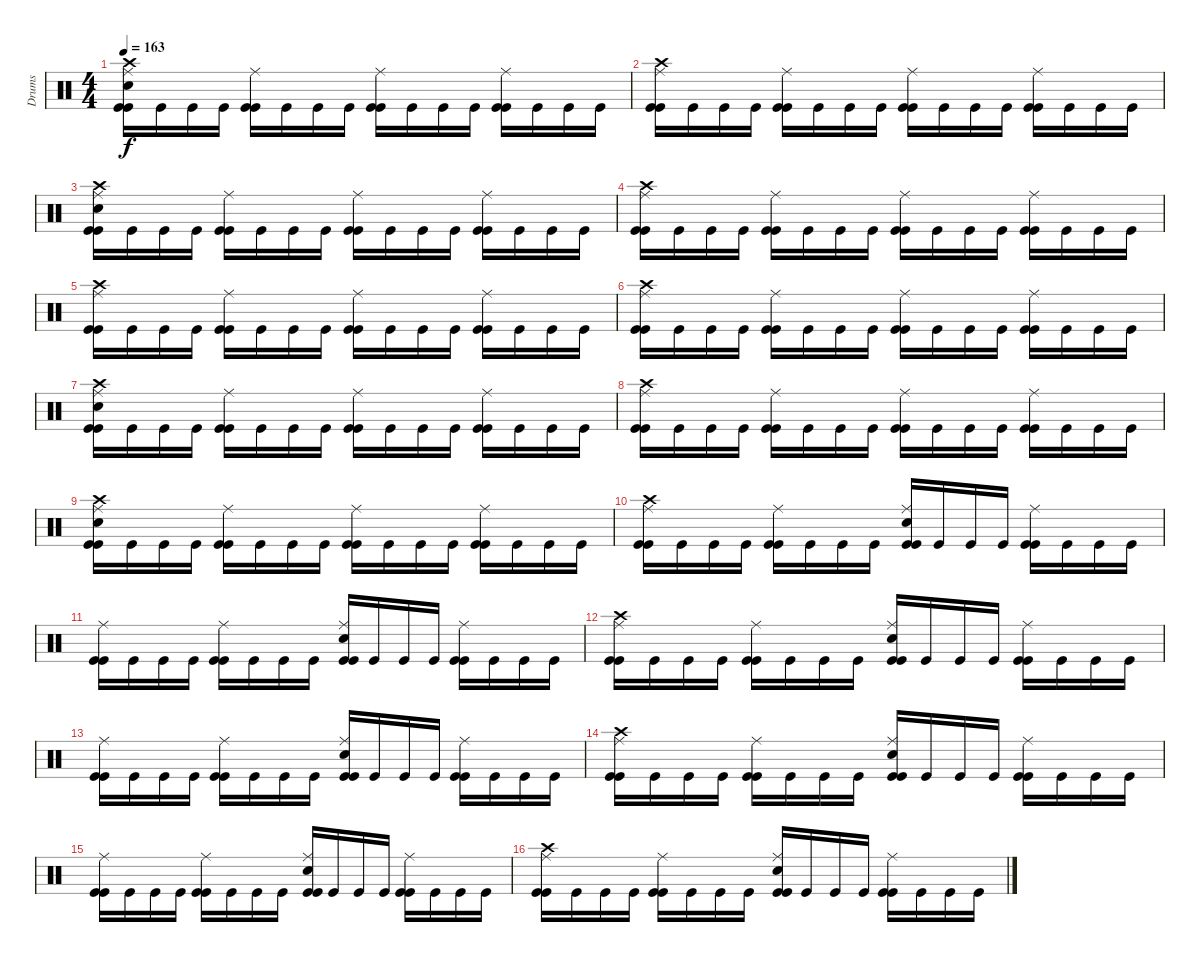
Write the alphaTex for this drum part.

\track ("Drums" "Drums") {instrument percussion}
\staff {score}
\articulation defaults
\ts (4 4)
\tempo 163
\clef neutral
\ks c
("Crash high (hit)" "Electric Snare (hit)" "Ride (middle)" "Kick (hit)" "Kick (hit)").16{dy f} "Kick (hit)".16 "Kick (hit)".16 "Kick (hit)".16 ("Ride (middle)" "Kick (hit)" "Kick (hit)").16 "Kick (hit)".16 "Kick (hit)".16 "Kick (hit)".16 ("Ride (middle)" "Kick (hit)" "Kick (hit)").16 "Kick (hit)".16 "Kick (hit)".16 "Kick (hit)".16 ("Ride (middle)" "Kick (hit)" "Kick (hit)").16 "Kick (hit)".16 "Kick (hit)".16 "Kick (hit)".16 |
("Crash high (hit)" "Ride (middle)" "Kick (hit)" "Kick (hit)").16 "Kick (hit)".16 "Kick (hit)".16 "Kick (hit)".16 ("Ride (middle)" "Kick (hit)" "Kick (hit)").16 "Kick (hit)".16 "Kick (hit)".16 "Kick (hit)".16 ("Ride (middle)" "Kick (hit)" "Kick (hit)").16 "Kick (hit)".16 "Kick (hit)".16 "Kick (hit)".16 ("Ride (middle)" "Kick (hit)" "Kick (hit)").16 "Kick (hit)".16 "Kick (hit)".16 "Kick (hit)".16 |
("Crash high (hit)" "Electric Snare (hit)" "Ride (middle)" "Kick (hit)" "Kick (hit)").16 "Kick (hit)".16 "Kick (hit)".16 "Kick (hit)".16 ("Ride (middle)" "Kick (hit)" "Kick (hit)").16 "Kick (hit)".16 "Kick (hit)".16 "Kick (hit)".16 ("Ride (middle)" "Kick (hit)" "Kick (hit)").16 "Kick (hit)".16 "Kick (hit)".16 "Kick (hit)".16 ("Ride (middle)" "Kick (hit)" "Kick (hit)").16 "Kick (hit)".16 "Kick (hit)".16 "Kick (hit)".16 |
("Crash high (hit)" "Ride (middle)" "Kick (hit)" "Kick (hit)").16 "Kick (hit)".16 "Kick (hit)".16 "Kick (hit)".16 ("Ride (middle)" "Kick (hit)" "Kick (hit)").16 "Kick (hit)".16 "Kick (hit)".16 "Kick (hit)".16 ("Ride (middle)" "Kick (hit)" "Kick (hit)").16 "Kick (hit)".16 "Kick (hit)".16 "Kick (hit)".16 ("Ride (middle)" "Kick (hit)" "Kick (hit)").16 "Kick (hit)".16 "Kick (hit)".16 "Kick (hit)".16 |
("Crash high (hit)" "Ride (middle)" "Kick (hit)" "Kick (hit)").16 "Kick (hit)".16 "Kick (hit)".16 "Kick (hit)".16 ("Ride (middle)" "Kick (hit)" "Kick (hit)").16 "Kick (hit)".16 "Kick (hit)".16 "Kick (hit)".16 ("Ride (middle)" "Kick (hit)" "Kick (hit)").16 "Kick (hit)".16 "Kick (hit)".16 "Kick (hit)".16 ("Ride (middle)" "Kick (hit)" "Kick (hit)").16 "Kick (hit)".16 "Kick (hit)".16 "Kick (hit)".16 |
("Crash high (hit)" "Ride (middle)" "Kick (hit)" "Kick (hit)").16 "Kick (hit)".16 "Kick (hit)".16 "Kick (hit)".16 ("Ride (middle)" "Kick (hit)" "Kick (hit)").16 "Kick (hit)".16 "Kick (hit)".16 "Kick (hit)".16 ("Ride (middle)" "Kick (hit)" "Kick (hit)").16 "Kick (hit)".16 "Kick (hit)".16 "Kick (hit)".16 ("Ride (middle)" "Kick (hit)" "Kick (hit)").16 "Kick (hit)".16 "Kick (hit)".16 "Kick (hit)".16 |
("Crash high (hit)" "Electric Snare (hit)" "Ride (middle)" "Kick (hit)" "Kick (hit)").16 "Kick (hit)".16 "Kick (hit)".16 "Kick (hit)".16 ("Ride (middle)" "Kick (hit)" "Kick (hit)").16 "Kick (hit)".16 "Kick (hit)".16 "Kick (hit)".16 ("Ride (middle)" "Kick (hit)" "Kick (hit)").16 "Kick (hit)".16 "Kick (hit)".16 "Kick (hit)".16 ("Ride (middle)" "Kick (hit)" "Kick (hit)").16 "Kick (hit)".16 "Kick (hit)".16 "Kick (hit)".16 |
("Crash high (hit)" "Ride (middle)" "Kick (hit)" "Kick (hit)").16 "Kick (hit)".16 "Kick (hit)".16 "Kick (hit)".16 ("Ride (middle)" "Kick (hit)" "Kick (hit)").16 "Kick (hit)".16 "Kick (hit)".16 "Kick (hit)".16 ("Ride (middle)" "Kick (hit)" "Kick (hit)").16 "Kick (hit)".16 "Kick (hit)".16 "Kick (hit)".16 ("Ride (middle)" "Kick (hit)" "Kick (hit)").16 "Kick (hit)".16 "Kick (hit)".16 "Kick (hit)".16 |
("Crash high (hit)" "Electric Snare (hit)" "Ride (middle)" "Kick (hit)" "Kick (hit)").16 "Kick (hit)".16 "Kick (hit)".16 "Kick (hit)".16 ("Ride (middle)" "Kick (hit)" "Kick (hit)").16 "Kick (hit)".16 "Kick (hit)".16 "Kick (hit)".16 ("Ride (middle)" "Kick (hit)" "Kick (hit)").16 "Kick (hit)".16 "Kick (hit)".16 "Kick (hit)".16 ("Ride (middle)" "Kick (hit)" "Kick (hit)").16 "Kick (hit)".16 "Kick (hit)".16 "Kick (hit)".16 |
("Crash high (hit)" "Ride (middle)" "Kick (hit)" "Kick (hit)").16 "Kick (hit)".16 "Kick (hit)".16 "Kick (hit)".16 ("Ride (middle)" "Kick (hit)" "Kick (hit)").16 "Kick (hit)".16 "Kick (hit)".16 "Kick (hit)".16 ("Electric Snare (hit)" "Ride (middle)" "Kick (hit)" "Kick (hit)").16 "Kick (hit)".16 "Kick (hit)".16 "Kick (hit)".16 ("Ride (middle)" "Kick (hit)" "Kick (hit)").16 "Kick (hit)".16 "Kick (hit)".16 "Kick (hit)".16 |
("Ride (middle)" "Kick (hit)" "Kick (hit)").16 "Kick (hit)".16 "Kick (hit)".16 "Kick (hit)".16 ("Ride (middle)" "Kick (hit)" "Kick (hit)").16 "Kick (hit)".16 "Kick (hit)".16 "Kick (hit)".16 ("Electric Snare (hit)" "Ride (middle)" "Kick (hit)" "Kick (hit)").16 "Kick (hit)".16 "Kick (hit)".16 "Kick (hit)".16 ("Ride (middle)" "Kick (hit)" "Kick (hit)").16 "Kick (hit)".16 "Kick (hit)".16 "Kick (hit)".16 |
("Crash high (hit)" "Ride (middle)" "Kick (hit)" "Kick (hit)").16 "Kick (hit)".16 "Kick (hit)".16 "Kick (hit)".16 ("Ride (middle)" "Kick (hit)" "Kick (hit)").16 "Kick (hit)".16 "Kick (hit)".16 "Kick (hit)".16 ("Electric Snare (hit)" "Ride (middle)" "Kick (hit)" "Kick (hit)").16 "Kick (hit)".16 "Kick (hit)".16 "Kick (hit)".16 ("Ride (middle)" "Kick (hit)" "Kick (hit)").16 "Kick (hit)".16 "Kick (hit)".16 "Kick (hit)".16 |
("Ride (middle)" "Kick (hit)" "Kick (hit)").16 "Kick (hit)".16 "Kick (hit)".16 "Kick (hit)".16 ("Ride (middle)" "Kick (hit)" "Kick (hit)").16 "Kick (hit)".16 "Kick (hit)".16 "Kick (hit)".16 ("Electric Snare (hit)" "Ride (middle)" "Kick (hit)" "Kick (hit)").16 "Kick (hit)".16 "Kick (hit)".16 "Kick (hit)".16 ("Ride (middle)" "Kick (hit)" "Kick (hit)").16 "Kick (hit)".16 "Kick (hit)".16 "Kick (hit)".16 |
("Crash high (hit)" "Ride (middle)" "Kick (hit)" "Kick (hit)").16 "Kick (hit)".16 "Kick (hit)".16 "Kick (hit)".16 ("Ride (middle)" "Kick (hit)" "Kick (hit)").16 "Kick (hit)".16 "Kick (hit)".16 "Kick (hit)".16 ("Electric Snare (hit)" "Ride (middle)" "Kick (hit)" "Kick (hit)").16 "Kick (hit)".16 "Kick (hit)".16 "Kick (hit)".16 ("Ride (middle)" "Kick (hit)" "Kick (hit)").16 "Kick (hit)".16 "Kick (hit)".16 "Kick (hit)".16 |
("Ride (middle)" "Kick (hit)" "Kick (hit)").16 "Kick (hit)".16 "Kick (hit)".16 "Kick (hit)".16 ("Ride (middle)" "Kick (hit)" "Kick (hit)").16 "Kick (hit)".16 "Kick (hit)".16 "Kick (hit)".16 ("Electric Snare (hit)" "Ride (middle)" "Kick (hit)" "Kick (hit)").16 "Kick (hit)".16 "Kick (hit)".16 "Kick (hit)".16 ("Ride (middle)" "Kick (hit)" "Kick (hit)").16 "Kick (hit)".16 "Kick (hit)".16 "Kick (hit)".16 |
("Crash high (hit)" "Ride (middle)" "Kick (hit)" "Kick (hit)").16 "Kick (hit)".16 "Kick (hit)".16 "Kick (hit)".16 ("Ride (middle)" "Kick (hit)" "Kick (hit)").16 "Kick (hit)".16 "Kick (hit)".16 "Kick (hit)".16 ("Electric Snare (hit)" "Ride (middle)" "Kick (hit)" "Kick (hit)").16 "Kick (hit)".16 "Kick (hit)".16 "Kick (hit)".16 ("Ride (middle)" "Kick (hit)" "Kick (hit)").16 "Kick (hit)".16 "Kick (hit)".16 "Kick (hit)".16
